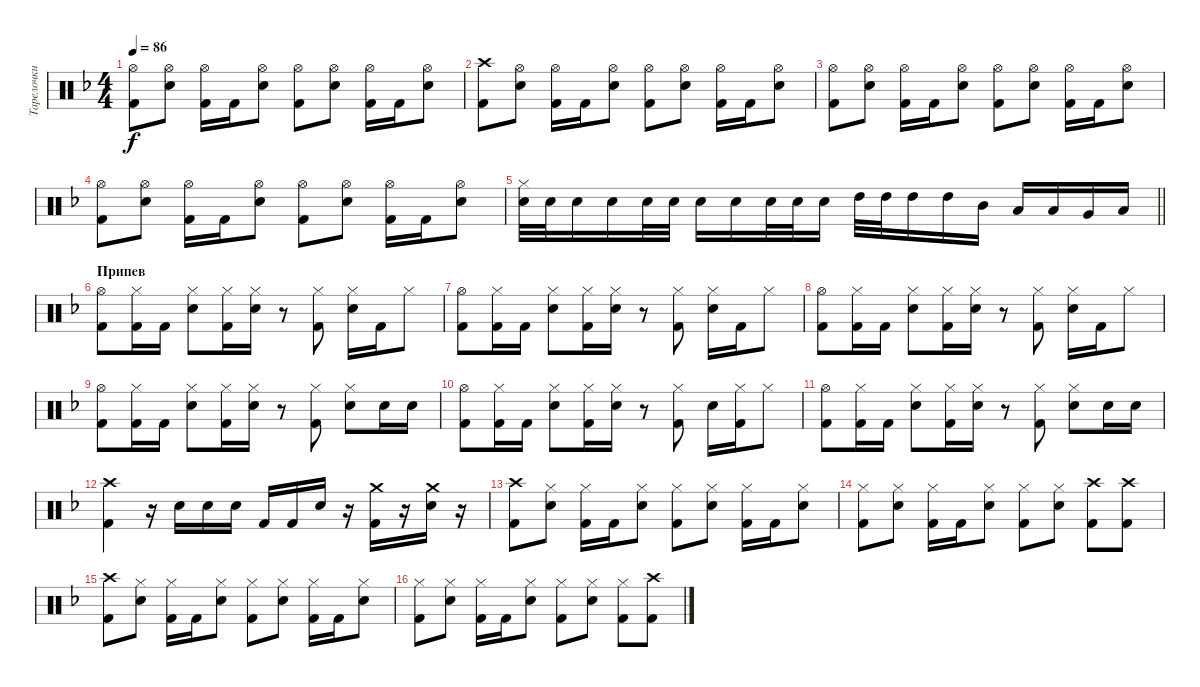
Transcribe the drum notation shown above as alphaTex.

\track ("Тарелочки" "Тарелочки") {instrument percussion}
\staff {score}
\articulation defaults
\ts (4 4)
\tempo 86
\clef neutral
\ks f
("Kick (hit) 2" "Hi-Hat (open)").8{dy f} ("Snare (hit) 2" "Hi-Hat (open)").8 ("Kick (hit) 2" "Hi-Hat (open)").16 "Kick (hit) 2".16 ("Snare (hit) 2" "Hi-Hat (open)").8 ("Kick (hit) 2" "Hi-Hat (open)").8 ("Snare (hit) 2" "Hi-Hat (open)").8 ("Kick (hit) 2" "Hi-Hat (open)").16 "Kick (hit) 2".16 ("Snare (hit) 2" "Hi-Hat (open)").8 |
("Kick (hit) 2" "Crash high (hit)").8 ("Snare (hit) 2" "Hi-Hat (open)").8 ("Kick (hit) 2" "Hi-Hat (open)").16 "Kick (hit) 2".16 ("Snare (hit) 2" "Hi-Hat (open)").8 ("Kick (hit) 2" "Hi-Hat (open)").8 ("Snare (hit) 2" "Hi-Hat (open)").8 ("Kick (hit) 2" "Hi-Hat (open)").16 "Kick (hit) 2".16 ("Snare (hit) 2" "Hi-Hat (open)").8 |
("Kick (hit) 2" "Hi-Hat (open)").8 ("Snare (hit) 2" "Hi-Hat (open)").8 ("Kick (hit) 2" "Hi-Hat (open)").16 "Kick (hit) 2".16 ("Snare (hit) 2" "Hi-Hat (open)").8 ("Kick (hit) 2" "Hi-Hat (open)").8 ("Snare (hit) 2" "Hi-Hat (open)").8 ("Kick (hit) 2" "Hi-Hat (open)").16 "Kick (hit) 2".16 ("Snare (hit) 2" "Hi-Hat (open)").8 |
("Kick (hit) 2" "Hi-Hat (open)").8 ("Snare (hit) 2" "Hi-Hat (open)").8 ("Kick (hit) 2" "Hi-Hat (open)").16 "Kick (hit) 2".16 ("Snare (hit) 2" "Hi-Hat (open)").8 ("Kick (hit) 2" "Hi-Hat (open)").8 ("Snare (hit) 2" "Hi-Hat (open)").8 ("Kick (hit) 2" "Hi-Hat (open)").16 "Kick (hit) 2".16 ("Snare (hit) 2" "Hi-Hat (open)").8 |
\barLineRight lightlight
("Snare (hit) 2" "Hi-Hat (closed)").32 "Snare (hit) 2".32 "Snare (hit) 2".16 "Snare (hit) 2".16 "Snare (hit) 2".32 "Snare (hit) 2".32 "Snare (hit) 2".16 "Snare (hit) 2".16 "Snare (hit) 2".32 "Snare (hit) 2".32 "Snare (hit) 2".16 "High Tom (hit)".32 "High Tom (hit)".32 "High Tom (hit)".16 "High Tom (hit)".16 "Mid Tom (hit)".16 "Low Tom (hit)".16 "Low Tom (hit)".16 "Very Low Tom (hit)".16 "Low Floor Tom (hit)".16 |
\section ("" "Припев")
("Kick (hit) 2" "Hi-Hat (open)").8 ("Kick (hit) 2" "Hi-Hat (closed)").16 "Kick (hit) 2".16 ("Snare (hit) 2" "Hi-Hat (closed)").8 ("Kick (hit) 2" "Hi-Hat (closed)").16 ("Snare (hit) 2" "Hi-Hat (closed)").16 r.8 ("Kick (hit) 2" "Hi-Hat (closed)").8 ("Snare (hit) 2" "Hi-Hat (closed)").16 "Kick (hit) 2".16 "Hi-Hat (closed)".8 |
("Kick (hit) 2" "Hi-Hat (open)").8 ("Kick (hit) 2" "Hi-Hat (closed)").16 "Kick (hit) 2".16 ("Snare (hit) 2" "Hi-Hat (closed)").8 ("Kick (hit) 2" "Hi-Hat (closed)").16 ("Snare (hit) 2" "Hi-Hat (closed)").16 r.8 ("Kick (hit) 2" "Hi-Hat (closed)").8 ("Snare (hit) 2" "Hi-Hat (closed)").16 "Kick (hit) 2".16 "Hi-Hat (closed)".8 |
("Kick (hit) 2" "Hi-Hat (open)").8 ("Kick (hit) 2" "Hi-Hat (closed)").16 "Kick (hit) 2".16 ("Snare (hit) 2" "Hi-Hat (closed)").8 ("Kick (hit) 2" "Hi-Hat (closed)").16 ("Snare (hit) 2" "Hi-Hat (closed)").16 r.8 ("Kick (hit) 2" "Hi-Hat (closed)").8 ("Snare (hit) 2" "Hi-Hat (closed)").16 "Kick (hit) 2".16 "Hi-Hat (closed)".8 |
("Kick (hit) 2" "Hi-Hat (open)").8 ("Kick (hit) 2" "Hi-Hat (closed)").16 "Kick (hit) 2".16 ("Snare (hit) 2" "Hi-Hat (closed)").8 ("Kick (hit) 2" "Hi-Hat (closed)").16 ("Snare (hit) 2" "Hi-Hat (closed)").16 r.8 ("Kick (hit) 2" "Hi-Hat (closed)").8 ("Snare (hit) 2" "Hi-Hat (closed)").8 "Snare (hit) 2".16 "Snare (hit) 2".16 |
("Kick (hit) 2" "Hi-Hat (open)").8 ("Kick (hit) 2" "Hi-Hat (closed)").16 "Kick (hit) 2".16 ("Snare (hit) 2" "Hi-Hat (closed)").8 ("Kick (hit) 2" "Hi-Hat (closed)").16 ("Snare (hit) 2" "Hi-Hat (closed)").16 r.8 ("Kick (hit) 2" "Hi-Hat (closed)").8 "Snare (hit) 2".16 ("Kick (hit) 2" "Hi-Hat (closed)").16 "Hi-Hat (closed)".8 |
("Kick (hit) 2" "Hi-Hat (open)").8 ("Kick (hit) 2" "Hi-Hat (closed)").16 "Kick (hit) 2".16 ("Snare (hit) 2" "Hi-Hat (closed)").8 ("Kick (hit) 2" "Hi-Hat (closed)").16 ("Snare (hit) 2" "Hi-Hat (closed)").16 r.8 ("Kick (hit) 2" "Hi-Hat (closed)").8 ("Snare (hit) 2" "Hi-Hat (closed)").8 "Snare (hit) 2".16 "Snare (hit) 2".16 |
("Kick (hit) 2" "Crash high (hit)").4 r.16 "Snare (hit) 2".16 "Snare (hit) 2".16 "Snare (hit) 2".16 "Kick (hit) 2".16 "Kick (hit) 2".16 "Snare (hit) 2".16 r.16 ("Kick (hit) 2" "Crash medium (hit)").16 r.16 ("Snare (hit) 2" "Crash medium (hit)").16 r.16 |
("Kick (hit) 2" "Crash high (hit)").8 ("Snare (hit) 2" "Hi-Hat (closed)").8 ("Kick (hit) 2" "Hi-Hat (closed)").16 "Kick (hit) 2".16 ("Snare (hit) 2" "Hi-Hat (closed)").8 ("Kick (hit) 2" "Hi-Hat (closed)").8 ("Snare (hit) 2" "Hi-Hat (closed)").8 ("Kick (hit) 2" "Hi-Hat (closed)").16 "Kick (hit) 2".16 ("Snare (hit) 2" "Hi-Hat (closed)").8 |
("Kick (hit) 2" "Hi-Hat (closed)").8 ("Snare (hit) 2" "Hi-Hat (closed)").8 ("Kick (hit) 2" "Hi-Hat (closed)").16 "Kick (hit) 2".16 ("Snare (hit) 2" "Hi-Hat (closed)").8 ("Kick (hit) 2" "Hi-Hat (closed)").8 ("Snare (hit) 2" "Hi-Hat (closed)").8 ("Kick (hit) 2" "Crash high (hit)").8 ("Kick (hit) 2" "Crash high (hit)").8 |
("Kick (hit) 2" "Crash high (hit)").8 ("Snare (hit) 2" "Hi-Hat (closed)").8 ("Kick (hit) 2" "Hi-Hat (closed)").16 "Kick (hit) 2".16 ("Snare (hit) 2" "Hi-Hat (closed)").8 ("Kick (hit) 2" "Hi-Hat (closed)").8 ("Snare (hit) 2" "Hi-Hat (closed)").8 ("Kick (hit) 2" "Hi-Hat (closed)").16 "Kick (hit) 2".16 ("Snare (hit) 2" "Hi-Hat (closed)").8 |
("Kick (hit) 2" "Hi-Hat (closed)").8 ("Snare (hit) 2" "Hi-Hat (closed)").8 ("Kick (hit) 2" "Hi-Hat (closed)").16 "Kick (hit) 2".16 ("Snare (hit) 2" "Hi-Hat (closed)").8 ("Kick (hit) 2" "Hi-Hat (closed)").8 ("Snare (hit) 2" "Hi-Hat (closed)").8 ("Kick (hit) 2" "Hi-Hat (closed)").8 ("Kick (hit) 2" "Crash high (hit)").8
